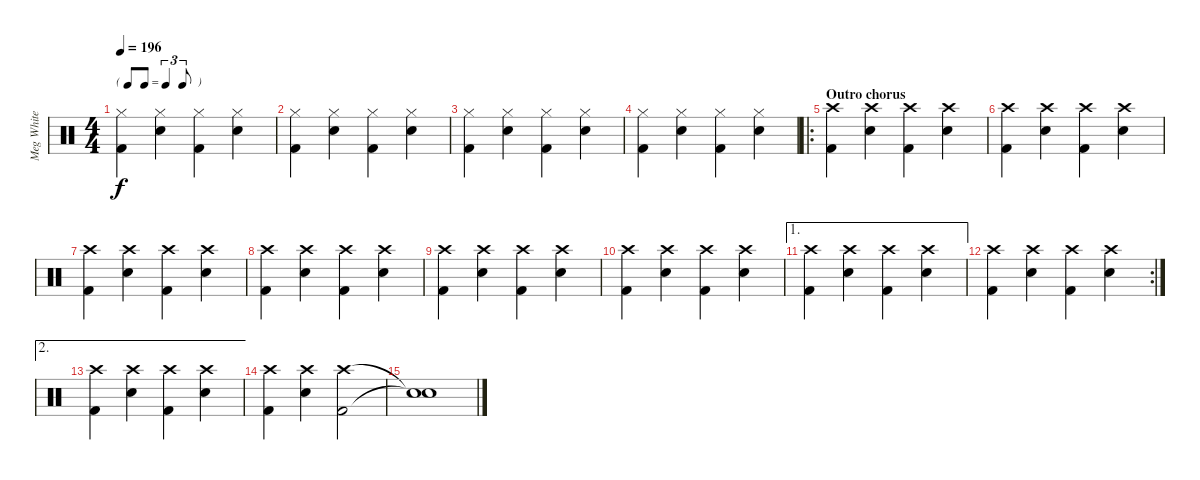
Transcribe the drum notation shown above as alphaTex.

\track ("Meg White" "Meg White") {instrument percussion}
\staff {score}
\articulation defaults
\ts (4 4)
\tf triplet8th
\tempo 196
\clef neutral
\ks c
("Hi-Hat (closed)" "Kick (hit) 2").4{dy f} ("Hi-Hat (closed)" "Electric Snare (hit)").4 ("Hi-Hat (closed)" "Kick (hit) 2").4 ("Hi-Hat (closed)" "Electric Snare (hit)").4 |
("Hi-Hat (closed)" "Kick (hit) 2").4 ("Hi-Hat (closed)" "Electric Snare (hit)").4 ("Hi-Hat (closed)" "Kick (hit) 2").4 ("Hi-Hat (closed)" "Electric Snare (hit)").4 |
("Hi-Hat (closed)" "Kick (hit) 2").4 ("Hi-Hat (closed)" "Electric Snare (hit)").4 ("Hi-Hat (closed)" "Kick (hit) 2").4 ("Hi-Hat (closed)" "Electric Snare (hit)").4 |
("Hi-Hat (closed)" "Kick (hit) 2").4 ("Hi-Hat (closed)" "Electric Snare (hit)").4 ("Hi-Hat (closed)" "Kick (hit) 2").4 ("Hi-Hat (closed)" "Electric Snare (hit)").4 |
\ro
\section ("" "Outro chorus")
("Crash high (hit)" "Kick (hit) 2").4 ("Crash high (hit)" "Electric Snare (hit)").4 ("Crash high (hit)" "Kick (hit) 2").4 ("Crash high (hit)" "Electric Snare (hit)").4 |
("Crash high (hit)" "Kick (hit) 2").4 ("Crash high (hit)" "Electric Snare (hit)").4 ("Crash high (hit)" "Kick (hit) 2").4 ("Crash high (hit)" "Electric Snare (hit)").4 |
("Crash high (hit)" "Kick (hit) 2").4 ("Crash high (hit)" "Electric Snare (hit)").4 ("Crash high (hit)" "Kick (hit) 2").4 ("Crash high (hit)" "Electric Snare (hit)").4 |
("Crash high (hit)" "Kick (hit) 2").4 ("Crash high (hit)" "Electric Snare (hit)").4 ("Crash high (hit)" "Kick (hit) 2").4 ("Crash high (hit)" "Electric Snare (hit)").4 |
("Crash high (hit)" "Kick (hit) 2").4 ("Crash high (hit)" "Electric Snare (hit)").4 ("Crash high (hit)" "Kick (hit) 2").4 ("Crash high (hit)" "Electric Snare (hit)").4 |
("Crash high (hit)" "Kick (hit) 2").4 ("Crash high (hit)" "Electric Snare (hit)").4 ("Crash high (hit)" "Kick (hit) 2").4 ("Crash high (hit)" "Electric Snare (hit)").4 |
\ae 1
("Crash high (hit)" "Kick (hit) 2").4 ("Crash high (hit)" "Electric Snare (hit)").4 ("Crash high (hit)" "Kick (hit) 2").4 ("Crash high (hit)" "Electric Snare (hit)").4 |
\rc 2
("Crash high (hit)" "Kick (hit) 2").4 ("Crash high (hit)" "Electric Snare (hit)").4 ("Crash high (hit)" "Kick (hit) 2").4 ("Crash high (hit)" "Electric Snare (hit)").4 |
\ae 2
("Crash high (hit)" "Kick (hit) 2").4 ("Crash high (hit)" "Electric Snare (hit)").4 ("Crash high (hit)" "Kick (hit) 2").4 ("Crash high (hit)" "Electric Snare (hit)").4 |
("Crash high (hit)" "Kick (hit) 2").4 ("Crash high (hit)" "Electric Snare (hit)").4 ("Crash high (hit)" "Kick (hit) 2").2 |
("Snare (hit)"{t} "Snare (hit)"{t}).1
